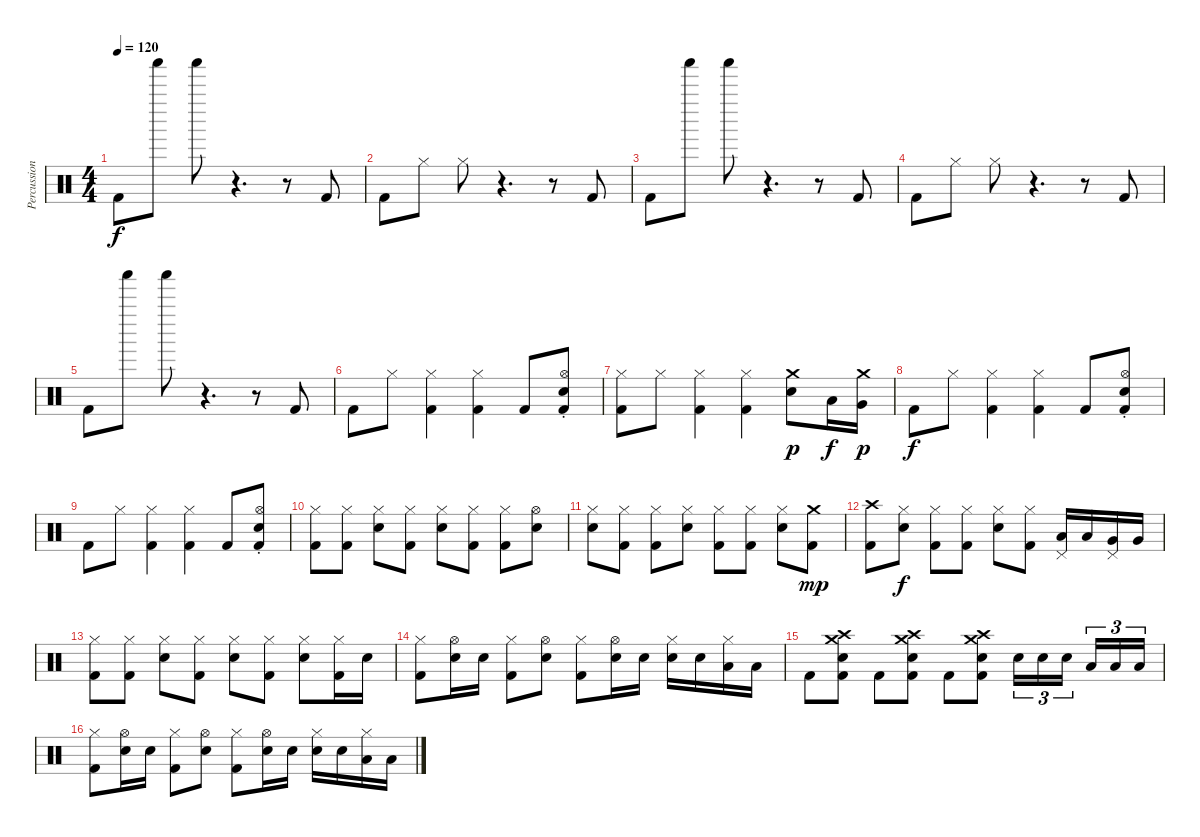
\track ("Percussion" "Percussion") {instrument percussion}
\staff {score}
\articulation defaults
\ts (4 4)
\tempo 120
\clef neutral
\ks c "Kick (hit) 2".8{dy f} "Shaker (hit)".8 "Shaker (hit)".8
r.4{d} r.8 "Kick (hit) 2".8 |
"Kick (hit) 2".8{volume 7} "Hi-Hat (closed)".8 "Hi-Hat (closed)".8 r.4{d} r.8 "Kick (hit) 2".8 |
"Kick (hit) 2".8{volume 8} "Shaker (hit)".8 "Shaker (hit)".8 r.4{d} r.8 "Kick (hit) 2".8 |
"Kick (hit) 2".8 "Hi-Hat (closed)".8 "Hi-Hat (closed)".8 r.4{d} r.8 "Kick (hit) 2".8 |
"Kick (hit) 2".8 "Shaker (hit)".8 "Shaker (hit)".8 r.4{d} r.8 "Kick (hit) 2".8 |
"Kick (hit) 2".8 "Hi-Hat (closed)".8 ("Hi-Hat (closed)" "Kick (hit) 2").4 ("Hi-Hat (closed)" "Kick (hit) 2").4 "Kick (hit) 2".8 ("Hi-Hat (open)"{st} "Snare (hit) 2" "Kick (hit) 2").8 |
("Hi-Hat (closed)" "Kick (hit) 2").8 "Hi-Hat (closed)".8 ("Hi-Hat (closed)" "Kick (hit) 2").4 ("Hi-Hat (closed)" "Kick (hit) 2").4 ("Crash medium (hit)" "Snare (hit) 2").8{dy p} "Low Tom (hit)".16{dy f} ("Crash medium (hit)" "Very Low Tom (hit)").16{dy p} |
"Kick (hit) 2".8{dy f} "Hi-Hat (closed)".8 ("Hi-Hat (closed)" "Kick (hit) 2").4 ("Hi-Hat (closed)" "Kick (hit) 2").4 "Kick (hit) 2".8 ("Hi-Hat (open)"{st} "Snare (hit) 2" "Kick (hit) 2").8 |
"Kick (hit) 2".8 "Hi-Hat (closed)".8 ("Hi-Hat (closed)" "Kick (hit) 2").4 ("Hi-Hat (closed)" "Kick (hit) 2").4 "Kick (hit) 2".8{volume 5} ("Hi-Hat (open)"{st} "Snare (hit) 2" "Kick (hit) 2").8 |
("Hi-Hat (closed)" "Kick (hit) 2").8{volume 11} ("Hi-Hat (closed)" "Kick (hit) 2").8 ("Hi-Hat (closed)" "Snare (hit) 2").8 ("Hi-Hat (closed)" "Kick (hit) 2").8 ("Hi-Hat (closed)" "Snare (hit) 2").8 ("Hi-Hat (closed)" "Kick (hit) 2").8 ("Hi-Hat (closed)" "Kick (hit) 2").8 ("Hi-Hat (open)" "Snare (hit) 2").8 |
("Hi-Hat (closed)" "Snare (hit) 2").8 ("Hi-Hat (closed)" "Kick (hit) 2").8 ("Hi-Hat (closed)" "Kick (hit) 2").8 ("Hi-Hat (closed)" "Snare (hit) 2").8 ("Hi-Hat (closed)" "Kick (hit) 2").8 ("Hi-Hat (closed)" "Kick (hit) 2").8 ("Hi-Hat (closed)" "Snare (hit) 2").8 ("Crash medium (hit)" "Kick (hit) 2").8{dy mp} |
("Crash high (hit)" "Kick (hit) 2").8 ("Hi-Hat (closed)" "Snare (hit) 2").8{dy f} ("Hi-Hat (closed)" "Kick (hit) 2").8 ("Hi-Hat (closed)" "Kick (hit) 2").8 ("Hi-Hat (closed)" "Snare (hit) 2").8 ("Hi-Hat (closed)" "Kick (hit) 2").8 ("Pedal Hi-Hat (hit)" "Low Tom (hit)").16 "Low Tom (hit)".16 ("Pedal Hi-Hat (hit)" "Very Low Tom (hit)").16 "Very Low Tom (hit)".16 |
("Hi-Hat (closed)" "Kick (hit) 2").8 ("Hi-Hat (closed)" "Kick (hit) 2").8 ("Hi-Hat (closed)" "Snare (hit) 2").8 ("Hi-Hat (closed)" "Kick (hit) 2").8 ("Hi-Hat (closed)" "Snare (hit) 2").8 ("Hi-Hat (closed)" "Kick (hit) 2").8 ("Hi-Hat (closed)" "Snare (hit) 2").8 ("Hi-Hat (closed)" "Kick (hit) 2").16 "Snare (hit) 2".16 |
("Hi-Hat (closed)" "Kick (hit) 2").8{volume 8} ("Hi-Hat (open)" "Snare (hit) 2").16 "Snare (hit) 2".16 ("Hi-Hat (closed)" "Kick (hit) 2").8 ("Hi-Hat (open)" "Snare (hit) 2").8 ("Hi-Hat (closed)" "Kick (hit) 2").8 ("Hi-Hat (open)" "Snare (hit) 2").16 "Snare (hit) 2".16 ("Hi-Hat (closed)" "Snare (hit) 2").16 "Snare (hit) 2".16 ("Hi-Hat (closed)" "Low Tom (hit)").16 "Low Tom (hit)".16 |
"Kick (hit) 2".8 ("Crash high (hit)" "Crash medium (hit)" "Snare (hit) 2" "Kick (hit) 2").8 "Kick (hit) 2".8 ("Crash high (hit)" "Crash medium (hit)" "Snare (hit) 2" "Kick (hit) 2").8 "Kick (hit) 2".8 ("Crash high (hit)" "Crash medium (hit)" "Snare (hit) 2" "Kick (hit) 2").8 "Snare (hit) 2".16{tu (3 2)} "Snare (hit) 2".16{tu (3 2)} "Snare (hit) 2".16{tu (3 2)} "Low Tom (hit)".16{tu (3 2)} "Low Tom (hit)".16{tu (3 2)} "Low Tom (hit)".16{tu (3 2)} |
("Hi-Hat (closed)" "Kick (hit) 2").8{volume 8} ("Hi-Hat (open)" "Snare (hit) 2").16 "Snare (hit) 2".16 ("Hi-Hat (closed)" "Kick (hit) 2").8 ("Hi-Hat (open)" "Snare (hit) 2").8 ("Hi-Hat (closed)" "Kick (hit) 2").8 ("Hi-Hat (open)" "Snare (hit) 2").16 "Snare (hit) 2".16 ("Hi-Hat (closed)" "Snare (hit) 2").16 "Snare (hit) 2".16 ("Hi-Hat (closed)" "Low Tom (hit)").16 "Low Tom (hit)".16
